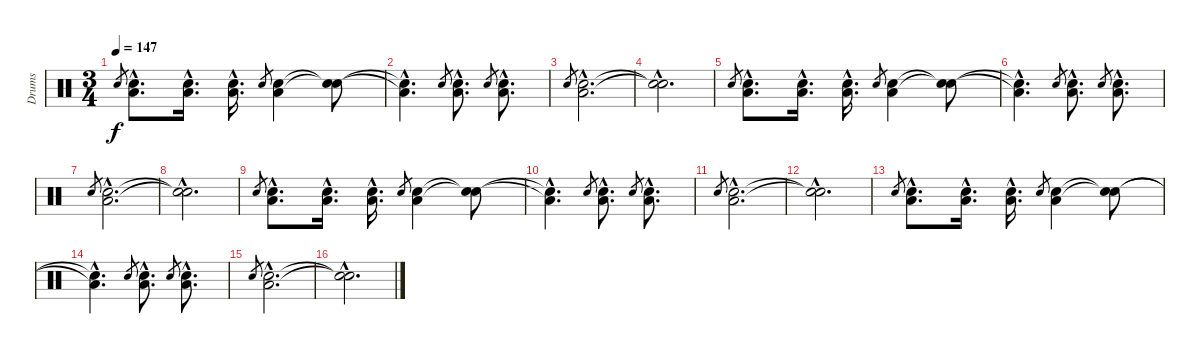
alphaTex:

\track ("Drums" "Drums") {instrument percussion}
\staff {score}
\articulation defaults
\ts (3 4)
\tempo 147
\clef neutral
\ks c "Snare (hit) 2".8{gr dy f}
("Snare (hit) 2"{hac} "Low Floor Tom (hit)"{hac}).8{d volume 16} ("Snare (hit) 2"{hac} "Low Floor Tom (hit)"{hac}).16{d} ("Snare (hit) 2"{hac} "Low Floor Tom (hit)"{hac}).16{d} "Snare (hit) 2".8{gr} ("Snare (hit) 2" "Low Floor Tom (hit)").4 ("Snare (hit)"{t} "Snare (hit)"{t}).8 |
("Snare (hit) 2"{hac t} "Low Floor Tom (hit)"{hac t}).4{d} "Snare (hit) 2".8{gr} ("Snare (hit) 2"{hac} "Low Floor Tom (hit)"{hac}).8{d} "Snare (hit) 2".8{gr} ("Snare (hit) 2"{hac} "Low Floor Tom (hit)"{hac}).8{d} |
"Snare (hit) 2".8{gr} ("Snare (hit) 2"{hac} "Low Floor Tom (hit)"{hac}).2{d} |
("Snare (hit)"{hac t} "Snare (hit)"{hac t}).2{d} |
"Snare (hit) 2".8{gr} ("Snare (hit) 2"{hac} "Low Floor Tom (hit)"{hac}).8{d volume 16} ("Snare (hit) 2"{hac} "Low Floor Tom (hit)"{hac}).16{d} ("Snare (hit) 2"{hac} "Low Floor Tom (hit)"{hac}).16{d} "Snare (hit) 2".8{gr} ("Snare (hit) 2" "Low Floor Tom (hit)").4 ("Snare (hit)"{t} "Snare (hit)"{t}).8 |
("Snare (hit) 2"{hac t} "Low Floor Tom (hit)"{hac t}).4{d} "Snare (hit) 2".8{gr} ("Snare (hit) 2"{hac} "Low Floor Tom (hit)"{hac}).8{d} "Snare (hit) 2".8{gr} ("Snare (hit) 2"{hac} "Low Floor Tom (hit)"{hac}).8{d} |
"Snare (hit) 2".8{gr} ("Snare (hit) 2"{hac} "Low Floor Tom (hit)"{hac}).2{d} |
("Snare (hit)"{hac t} "Snare (hit)"{hac t}).2{d} |
"Snare (hit) 2".8{gr} ("Snare (hit) 2"{hac} "Low Floor Tom (hit)"{hac}).8{d volume 16} ("Snare (hit) 2"{hac} "Low Floor Tom (hit)"{hac}).16{d} ("Snare (hit) 2"{hac} "Low Floor Tom (hit)"{hac}).16{d} "Snare (hit) 2".8{gr} ("Snare (hit) 2" "Low Floor Tom (hit)").4 ("Snare (hit)"{t} "Snare (hit)"{t}).8 |
("Snare (hit) 2"{hac t} "Low Floor Tom (hit)"{hac t}).4{d} "Snare (hit) 2".8{gr} ("Snare (hit) 2"{hac} "Low Floor Tom (hit)"{hac}).8{d} "Snare (hit) 2".8{gr} ("Snare (hit) 2"{hac} "Low Floor Tom (hit)"{hac}).8{d} |
"Snare (hit) 2".8{gr} ("Snare (hit) 2"{hac} "Low Floor Tom (hit)"{hac}).2{d} |
("Snare (hit)"{hac t} "Snare (hit)"{hac t}).2{d} |
"Snare (hit) 2".8{gr} ("Snare (hit) 2"{hac} "Low Floor Tom (hit)"{hac}).8{d volume 16} ("Snare (hit) 2"{hac} "Low Floor Tom (hit)"{hac}).16{d} ("Snare (hit) 2"{hac} "Low Floor Tom (hit)"{hac}).16{d} "Snare (hit) 2".8{gr} ("Snare (hit) 2" "Low Floor Tom (hit)").4 ("Snare (hit)"{t} "Snare (hit)"{t}).8 |
("Snare (hit) 2"{hac t} "Low Floor Tom (hit)"{hac t}).4{d} "Snare (hit) 2".8{gr} ("Snare (hit) 2"{hac} "Low Floor Tom (hit)"{hac}).8{d} "Snare (hit) 2".8{gr} ("Snare (hit) 2"{hac} "Low Floor Tom (hit)"{hac}).8{d} |
"Snare (hit) 2".8{gr} ("Snare (hit) 2"{hac} "Low Floor Tom (hit)"{hac}).2{d} |
("Snare (hit)"{hac t} "Snare (hit)"{hac t}).2{d}
